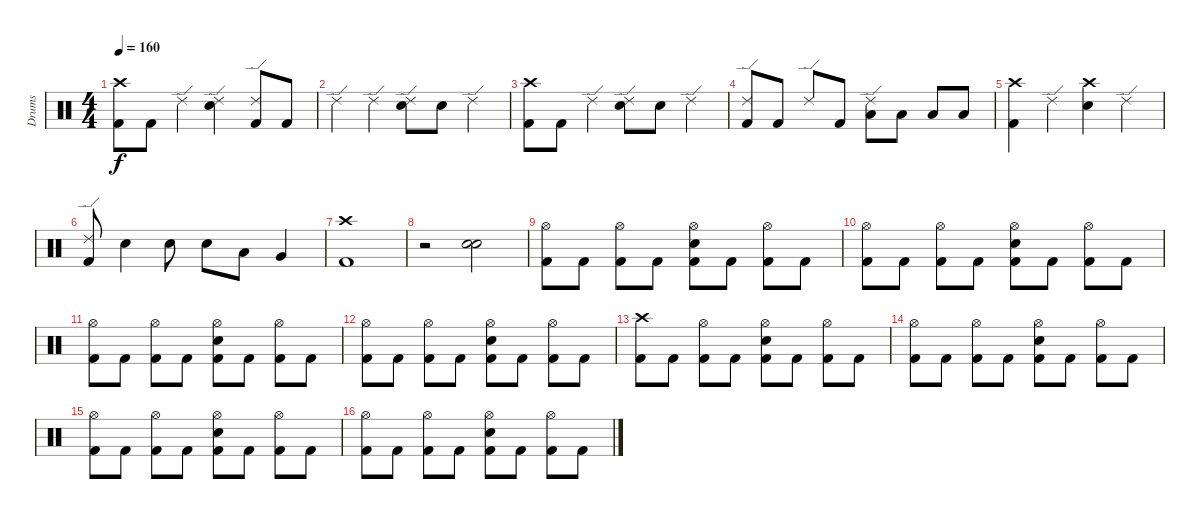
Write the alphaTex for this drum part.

\track ("Drums" "Drums") {instrument percussion}
\staff {score}
\articulation defaults
\ts (4 4)
\tempo 160
\clef neutral
\ks c
("Crash high (hit)" "Kick (hit) 2").8{dy f} "Kick (hit) 2".8 "Ride (edge) 2".4 ("Ride (edge) 2" "Electric Snare (hit)").4 ("Ride (edge) 2" "Kick (hit) 2").8 "Kick (hit) 2".8 |
"Ride (edge) 2".4 "Ride (edge) 2".4 ("Ride (edge) 2" "Electric Snare (hit)").8 "Electric Snare (hit)".8 "Ride (edge) 2".4 |
("Crash high (hit)" "Kick (hit) 2").8 "Kick (hit) 2".8 "Ride (edge) 2".4 ("Ride (edge) 2" "Electric Snare (hit)").8 "Electric Snare (hit)".8 "Ride (edge) 2".4 |
("Ride (edge) 2" "Kick (hit) 2").8 "Kick (hit) 2".8 "Ride (edge) 2".8 "Kick (hit) 2".8 ("Ride (edge) 2" "Low Floor Tom (hit)").8 "Low Floor Tom (hit)".8 "Low Floor Tom (hit)".8 "Low Floor Tom (hit)".8 |
("Crash high (hit)" "Kick (hit) 2").4 "Ride (edge) 2".4 ("Crash high (hit)" "Electric Snare (hit)").4 "Ride (edge) 2".4 |
("Ride (edge) 2" "Kick (hit) 2").8 "Electric Snare (hit)".4 "Electric Snare (hit)".8 "Electric Snare (hit)".8 "Low Tom (hit)".8 "Very Low Tom (hit)".4 |
("Crash high (hit)" "Kick (hit) 2").1 |
r.2 ("Electric Snare (hit)" "Electric Snare (hit)").2{bd 120} |
("Hi-Hat (open)" "Kick (hit) 2").8 "Kick (hit) 2".8 ("Hi-Hat (open)" "Kick (hit) 2").8 "Kick (hit) 2".8 ("Hi-Hat (open)" "Electric Snare (hit)" "Kick (hit) 2").8 "Kick (hit) 2".8 ("Hi-Hat (open)" "Kick (hit) 2").8 "Kick (hit) 2".8 |
("Hi-Hat (open)" "Kick (hit) 2").8 "Kick (hit) 2".8 ("Hi-Hat (open)" "Kick (hit) 2").8 "Kick (hit) 2".8 ("Hi-Hat (open)" "Electric Snare (hit)" "Kick (hit) 2").8 "Kick (hit) 2".8 ("Hi-Hat (open)" "Kick (hit) 2").8 "Kick (hit) 2".8 |
("Hi-Hat (open)" "Kick (hit) 2").8 "Kick (hit) 2".8 ("Hi-Hat (open)" "Kick (hit) 2").8 "Kick (hit) 2".8 ("Hi-Hat (open)" "Electric Snare (hit)" "Kick (hit) 2").8 "Kick (hit) 2".8 ("Hi-Hat (open)" "Kick (hit) 2").8 "Kick (hit) 2".8 |
("Hi-Hat (open)" "Kick (hit) 2").8 "Kick (hit) 2".8 ("Hi-Hat (open)" "Kick (hit) 2").8 "Kick (hit) 2".8 ("Hi-Hat (open)" "Electric Snare (hit)" "Kick (hit) 2").8 "Kick (hit) 2".8 ("Hi-Hat (open)" "Kick (hit) 2").8 "Kick (hit) 2".8 |
("Crash high (hit)" "Kick (hit) 2").8 "Kick (hit) 2".8 ("Hi-Hat (open)" "Kick (hit) 2").8 "Kick (hit) 2".8 ("Hi-Hat (open)" "Electric Snare (hit)" "Kick (hit) 2").8 "Kick (hit) 2".8 ("Hi-Hat (open)" "Kick (hit) 2").8 "Kick (hit) 2".8 |
("Hi-Hat (open)" "Kick (hit) 2").8 "Kick (hit) 2".8 ("Hi-Hat (open)" "Kick (hit) 2").8 "Kick (hit) 2".8 ("Hi-Hat (open)" "Electric Snare (hit)" "Kick (hit) 2").8 "Kick (hit) 2".8 ("Hi-Hat (open)" "Kick (hit) 2").8 "Kick (hit) 2".8 |
("Hi-Hat (open)" "Kick (hit) 2").8 "Kick (hit) 2".8 ("Hi-Hat (open)" "Kick (hit) 2").8 "Kick (hit) 2".8 ("Hi-Hat (open)" "Electric Snare (hit)" "Kick (hit) 2").8 "Kick (hit) 2".8 ("Hi-Hat (open)" "Kick (hit) 2").8 "Kick (hit) 2".8 |
("Hi-Hat (open)" "Kick (hit) 2").8 "Kick (hit) 2".8 ("Hi-Hat (open)" "Kick (hit) 2").8 "Kick (hit) 2".8 ("Hi-Hat (open)" "Electric Snare (hit)" "Kick (hit) 2").8 "Kick (hit) 2".8 ("Hi-Hat (open)" "Kick (hit) 2").8 "Kick (hit) 2".8
